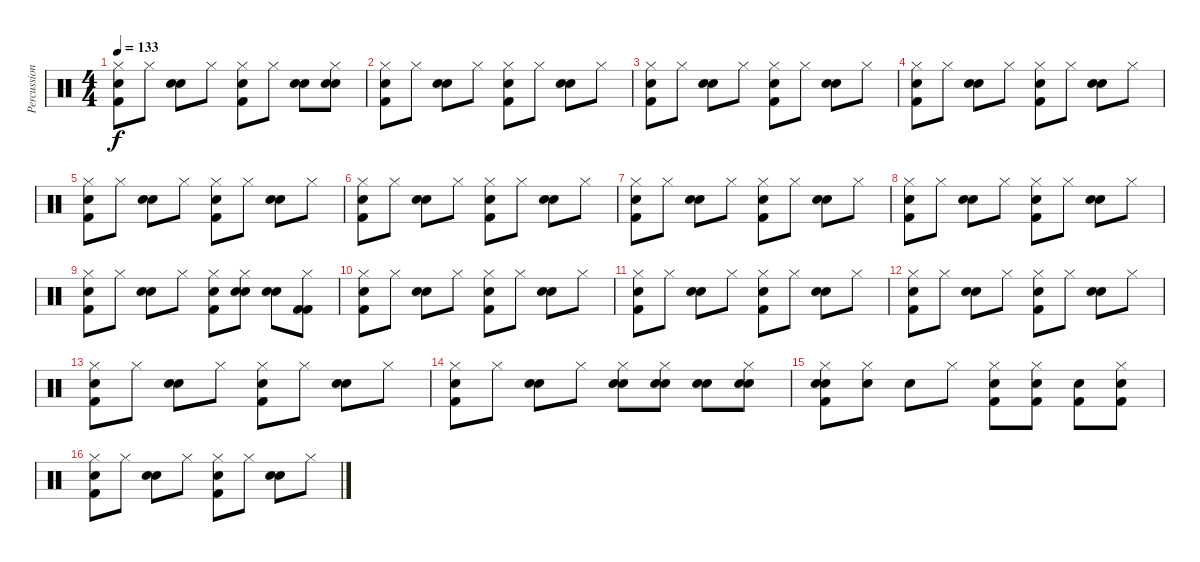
\track ("Percussions" "Percussion") {instrument percussion}
\staff {score}
\articulation defaults
\ts (4 4)
\tempo 133
\clef neutral
\ks c
("Snare (hit) 2" "Kick (hit) 2" "Hi-Hat (closed)").8{dy f} "Hi-Hat (closed)".8 ("Electric Snare (hit)" "Electric Snare (hit)").8 "Hi-Hat (closed)".8 ("Snare (hit) 2" "Kick (hit) 2" "Hi-Hat (closed)").8 "Hi-Hat (closed)".8 ("Electric Snare (hit)" "Electric Snare (hit)").8 ("Electric Snare (hit)" "Electric Snare (hit)" "Hi-Hat (closed)").8 |
("Snare (hit) 2" "Kick (hit) 2" "Hi-Hat (closed)").8 "Hi-Hat (closed)".8 ("Electric Snare (hit)" "Electric Snare (hit)").8 "Hi-Hat (closed)".8 ("Snare (hit) 2" "Kick (hit) 2" "Hi-Hat (closed)").8 "Hi-Hat (closed)".8 ("Electric Snare (hit)" "Electric Snare (hit)").8 "Hi-Hat (closed)".8 |
("Snare (hit) 2" "Kick (hit) 2" "Hi-Hat (closed)").8 "Hi-Hat (closed)".8 ("Electric Snare (hit)" "Electric Snare (hit)").8 "Hi-Hat (closed)".8 ("Snare (hit) 2" "Kick (hit) 2" "Hi-Hat (closed)").8 "Hi-Hat (closed)".8 ("Electric Snare (hit)" "Electric Snare (hit)").8 "Hi-Hat (closed)".8 |
("Snare (hit) 2" "Kick (hit) 2" "Hi-Hat (closed)").8 "Hi-Hat (closed)".8 ("Electric Snare (hit)" "Electric Snare (hit)").8 "Hi-Hat (closed)".8 ("Snare (hit) 2" "Kick (hit) 2" "Hi-Hat (closed)").8 "Hi-Hat (closed)".8 ("Electric Snare (hit)" "Electric Snare (hit)").8 "Hi-Hat (closed)".8 |
("Snare (hit) 2" "Kick (hit) 2" "Hi-Hat (closed)").8 "Hi-Hat (closed)".8 ("Electric Snare (hit)" "Electric Snare (hit)").8 "Hi-Hat (closed)".8 ("Snare (hit) 2" "Kick (hit) 2" "Hi-Hat (closed)").8 "Hi-Hat (closed)".8 ("Electric Snare (hit)" "Electric Snare (hit)").8 "Hi-Hat (closed)".8 |
("Snare (hit) 2" "Kick (hit) 2" "Hi-Hat (closed)").8 "Hi-Hat (closed)".8 ("Electric Snare (hit)" "Electric Snare (hit)").8 "Hi-Hat (closed)".8 ("Snare (hit) 2" "Kick (hit) 2" "Hi-Hat (closed)").8 "Hi-Hat (closed)".8 ("Electric Snare (hit)" "Electric Snare (hit)").8 "Hi-Hat (closed)".8 |
("Snare (hit) 2" "Kick (hit) 2" "Hi-Hat (closed)").8 "Hi-Hat (closed)".8 ("Electric Snare (hit)" "Electric Snare (hit)").8 "Hi-Hat (closed)".8 ("Snare (hit) 2" "Kick (hit) 2" "Hi-Hat (closed)").8 "Hi-Hat (closed)".8 ("Electric Snare (hit)" "Electric Snare (hit)").8 "Hi-Hat (closed)".8 |
("Snare (hit) 2" "Kick (hit) 2" "Hi-Hat (closed)").8 "Hi-Hat (closed)".8 ("Electric Snare (hit)" "Electric Snare (hit)").8 "Hi-Hat (closed)".8 ("Snare (hit) 2" "Kick (hit) 2" "Hi-Hat (closed)").8 "Hi-Hat (closed)".8 ("Electric Snare (hit)" "Electric Snare (hit)").8 "Hi-Hat (closed)".8 |
("Snare (hit) 2" "Kick (hit) 2" "Hi-Hat (closed)").8 "Hi-Hat (closed)".8 ("Electric Snare (hit)" "Electric Snare (hit)").8 "Hi-Hat (closed)".8 ("Snare (hit) 2" "Kick (hit) 2" "Hi-Hat (closed)").8 ("Electric Snare (hit)" "Electric Snare (hit)" "Hi-Hat (closed)").8 ("Snare (hit) 2" "Snare (hit) 2").8 ("Kick (hit) 2" "Kick (hit) 2" "Hi-Hat (closed)").8 |
("Snare (hit) 2" "Kick (hit) 2" "Hi-Hat (closed)").8 "Hi-Hat (closed)".8 ("Electric Snare (hit)" "Electric Snare (hit)").8 "Hi-Hat (closed)".8 ("Snare (hit) 2" "Kick (hit) 2" "Hi-Hat (closed)").8 "Hi-Hat (closed)".8 ("Electric Snare (hit)" "Electric Snare (hit)").8 "Hi-Hat (closed)".8 |
("Snare (hit) 2" "Kick (hit) 2" "Hi-Hat (closed)").8 "Hi-Hat (closed)".8 ("Electric Snare (hit)" "Electric Snare (hit)").8 "Hi-Hat (closed)".8 ("Snare (hit) 2" "Kick (hit) 2" "Hi-Hat (closed)").8 "Hi-Hat (closed)".8 ("Electric Snare (hit)" "Electric Snare (hit)").8 "Hi-Hat (closed)".8 |
("Snare (hit) 2" "Kick (hit) 2" "Hi-Hat (closed)").8 "Hi-Hat (closed)".8 ("Electric Snare (hit)" "Electric Snare (hit)").8 "Hi-Hat (closed)".8 ("Snare (hit) 2" "Kick (hit) 2" "Hi-Hat (closed)").8 "Hi-Hat (closed)".8 ("Electric Snare (hit)" "Electric Snare (hit)").8 "Hi-Hat (closed)".8 |
("Snare (hit) 2" "Kick (hit) 2" "Hi-Hat (closed)").8 "Hi-Hat (closed)".8 ("Electric Snare (hit)" "Electric Snare (hit)").8 "Hi-Hat (closed)".8 ("Snare (hit) 2" "Kick (hit) 2" "Hi-Hat (closed)").8 "Hi-Hat (closed)".8 ("Electric Snare (hit)" "Electric Snare (hit)").8 "Hi-Hat (closed)".8 |
("Snare (hit) 2" "Kick (hit) 2" "Hi-Hat (closed)").8 "Hi-Hat (closed)".8 ("Electric Snare (hit)" "Electric Snare (hit)").8 "Hi-Hat (closed)".8 ("Electric Snare (hit)" "Electric Snare (hit)" "Hi-Hat (closed)").8 ("Electric Snare (hit)" "Electric Snare (hit)" "Hi-Hat (closed)").8 ("Electric Snare (hit)" "Electric Snare (hit)").8 ("Electric Snare (hit)" "Electric Snare (hit)" "Hi-Hat (closed)").8 |
("Snare (hit) 2" "Electric Snare (hit)" "Kick (hit) 2" "Hi-Hat (closed)").8 ("Electric Snare (hit)" "Hi-Hat (closed)").8 "Snare (hit) 2".8 "Hi-Hat (closed)".8 ("Snare (hit) 2" "Kick (hit) 2" "Hi-Hat (closed)").8 ("Snare (hit) 2" "Kick (hit) 2" "Hi-Hat (closed)").8 ("Snare (hit) 2" "Kick (hit) 2").8 ("Snare (hit) 2" "Kick (hit) 2" "Hi-Hat (closed)").8 |
("Snare (hit) 2" "Kick (hit) 2" "Hi-Hat (closed)").8 "Hi-Hat (closed)".8 ("Electric Snare (hit)" "Electric Snare (hit)").8 "Hi-Hat (closed)".8 ("Snare (hit) 2" "Kick (hit) 2" "Hi-Hat (closed)").8 "Hi-Hat (closed)".8 ("Electric Snare (hit)" "Electric Snare (hit)").8 "Hi-Hat (closed)".8
